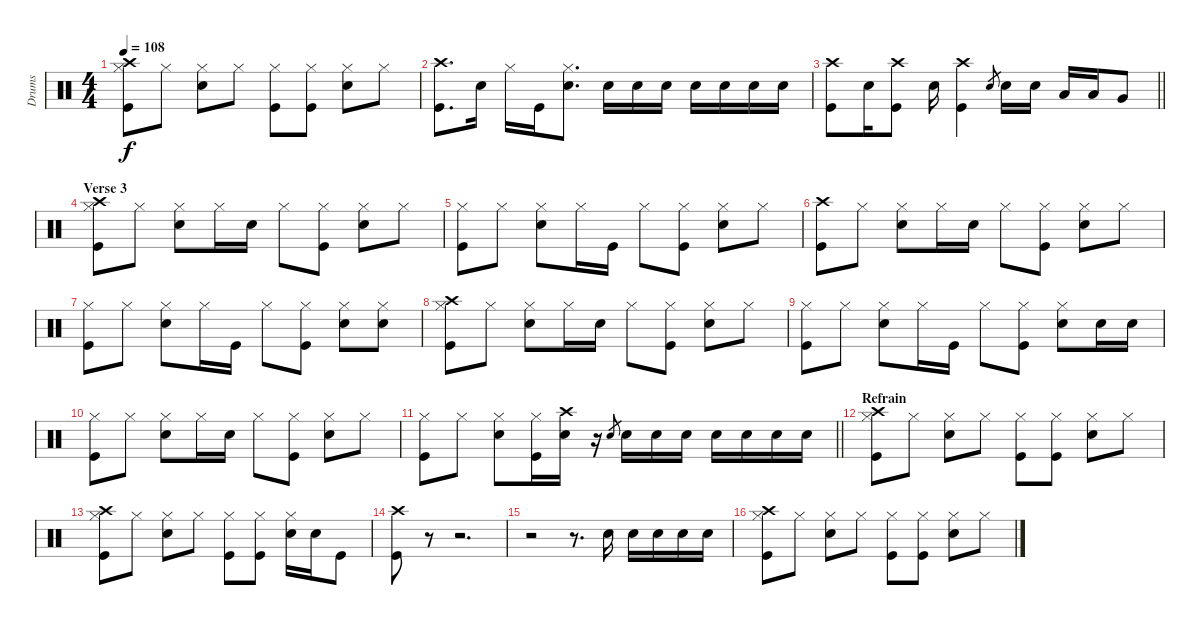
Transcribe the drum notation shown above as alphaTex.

\track ("Drums" "Drums") {instrument percussion}
\staff {score}
\articulation defaults
\ts (4 4)
\tempo 108
\clef neutral
\ks c
("Kick (hit)" "Hi-Hat (closed)" "Crash high (hit)").8{dy f} "Hi-Hat (closed)".8 ("Snare (hit) 2" "Hi-Hat (closed)").8 "Hi-Hat (closed)".8 ("Kick (hit)" "Hi-Hat (closed)").8 ("Hi-Hat (closed)" "Kick (hit)").8 ("Snare (hit) 2" "Hi-Hat (closed)").8 "Hi-Hat (closed)".8 |
("Crash high (hit)" "Kick (hit)").8{d} "Snare (hit) 2".16 "Hi-Hat (closed)".16 "Kick (hit)".16 ("Snare (hit) 2" "Hi-Hat (closed)").8{d} "Snare (hit) 2".16 "Snare (hit) 2".16 "Snare (hit) 2".16 "Snare (hit) 2".16 "Snare (hit) 2".16 "Snare (hit) 2".16 "Snare (hit) 2".16 |
\barLineRight lightlight
("Kick (hit)" "Crash high (hit)").8 "Snare (hit) 2".16 ("Kick (hit)" "Crash high (hit)").8 "Snare (hit) 2".16 ("Kick (hit)" "Crash high (hit)").4 "Snare (hit) 2".8{gr} "Snare (hit) 2".16 "Snare (hit) 2".16 "Low Tom (hit)".16 "Low Tom (hit)".16 "Very Low Tom (hit)".8 |
\section ("" "Verse 3")
("Hi-Hat (closed)" "Kick (hit)" "Crash high (hit)").8 "Hi-Hat (closed)".8 ("Snare (hit) 2" "Hi-Hat (closed)").8 "Hi-Hat (closed)".16 "Snare (hit) 2".16 "Hi-Hat (closed)".8 ("Kick (hit)" "Hi-Hat (closed)").8 ("Hi-Hat (closed)" "Snare (hit) 2").8 "Hi-Hat (closed)".8 |
("Hi-Hat (closed)" "Kick (hit)").8 "Hi-Hat (closed)".8 ("Snare (hit) 2" "Hi-Hat (closed)").8 "Hi-Hat (closed)".16 "Kick (hit)".16 "Hi-Hat (closed)".8 ("Kick (hit)" "Hi-Hat (closed)").8 ("Hi-Hat (closed)" "Snare (hit) 2").8 "Hi-Hat (closed)".8 |
("Crash high (hit)" "Kick (hit)").8 "Hi-Hat (closed)".8 ("Snare (hit) 2" "Hi-Hat (closed)").8 "Hi-Hat (closed)".16 "Snare (hit) 2".16 "Hi-Hat (closed)".8 ("Kick (hit)" "Hi-Hat (closed)").8 ("Hi-Hat (closed)" "Snare (hit) 2").8 "Hi-Hat (closed)".8 |
("Hi-Hat (closed)" "Kick (hit)").8 "Hi-Hat (closed)".8 ("Snare (hit) 2" "Hi-Hat (closed)").8 "Hi-Hat (closed)".16 "Kick (hit)".16 "Hi-Hat (closed)".8 ("Kick (hit)" "Hi-Hat (closed)").8 ("Hi-Hat (closed)" "Snare (hit) 2").8 ("Hi-Hat (closed)" "Snare (hit) 2").8 |
("Hi-Hat (closed)" "Kick (hit)" "Crash high (hit)").8 "Hi-Hat (closed)".8 ("Snare (hit) 2" "Hi-Hat (closed)").8 "Hi-Hat (closed)".16 "Snare (hit) 2".16 "Hi-Hat (closed)".8 ("Kick (hit)" "Hi-Hat (closed)").8 ("Hi-Hat (closed)" "Snare (hit) 2").8 "Hi-Hat (closed)".8 |
("Hi-Hat (closed)" "Kick (hit)").8 "Hi-Hat (closed)".8 ("Snare (hit) 2" "Hi-Hat (closed)").8 "Hi-Hat (closed)".16 "Kick (hit)".16 "Hi-Hat (closed)".8 ("Kick (hit)" "Hi-Hat (closed)").8 ("Hi-Hat (closed)" "Snare (hit) 2").8 "Snare (hit) 2".16 "Snare (hit) 2".16 |
("Hi-Hat (closed)" "Kick (hit)").8 "Hi-Hat (closed)".8 ("Snare (hit) 2" "Hi-Hat (closed)").8 "Hi-Hat (closed)".16 "Snare (hit) 2".16 "Hi-Hat (closed)".8 ("Kick (hit)" "Hi-Hat (closed)").8 ("Hi-Hat (closed)" "Snare (hit) 2").8 "Hi-Hat (closed)".8 |
\barLineRight lightlight
("Hi-Hat (closed)" "Kick (hit)").8 "Hi-Hat (closed)".8 ("Snare (hit) 2" "Hi-Hat (closed)").8 ("Hi-Hat (closed)" "Kick (hit)").16 ("Snare (hit) 2" "Crash high (hit)").16 r.16 "Snare (hit) 2".8{gr} "Snare (hit) 2".16 "Snare (hit) 2".16 "Snare (hit) 2".16 "Snare (hit) 2".16 "Snare (hit) 2".16 "Snare (hit) 2".16 "Snare (hit) 2".16 |
\section ("" "Refrain")
("Kick (hit)" "Hi-Hat (closed)" "Crash high (hit)").8 "Hi-Hat (closed)".8 ("Snare (hit) 2" "Hi-Hat (closed)").8 "Hi-Hat (closed)".8 ("Kick (hit)" "Hi-Hat (closed)").8 ("Hi-Hat (closed)" "Kick (hit)").8 ("Hi-Hat (closed)" "Snare (hit) 2").8 "Hi-Hat (closed)".8 |
("Kick (hit)" "Hi-Hat (closed)" "Crash high (hit)").8 "Hi-Hat (closed)".8 ("Snare (hit) 2" "Hi-Hat (closed)").8 "Hi-Hat (closed)".8 ("Kick (hit)" "Hi-Hat (closed)").8 ("Hi-Hat (closed)" "Kick (hit)").8 ("Hi-Hat (closed)" "Snare (hit) 2").16 "Snare (hit) 2".16 "Kick (hit)".8 |
("Kick (hit)" "Crash high (hit)").8 r.8 r.2{d} |
r.2 r.8{d} "Snare (hit) 2".16 "Snare (hit) 2".16 "Snare (hit) 2".16 "Snare (hit) 2".16 "Snare (hit) 2".16 |
("Kick (hit)" "Hi-Hat (closed)" "Crash high (hit)").8 "Hi-Hat (closed)".8 ("Snare (hit) 2" "Hi-Hat (closed)").8 "Hi-Hat (closed)".8 ("Kick (hit)" "Hi-Hat (closed)").8 ("Hi-Hat (closed)" "Kick (hit)").8 ("Snare (hit) 2" "Hi-Hat (closed)").8 "Hi-Hat (closed)".8
